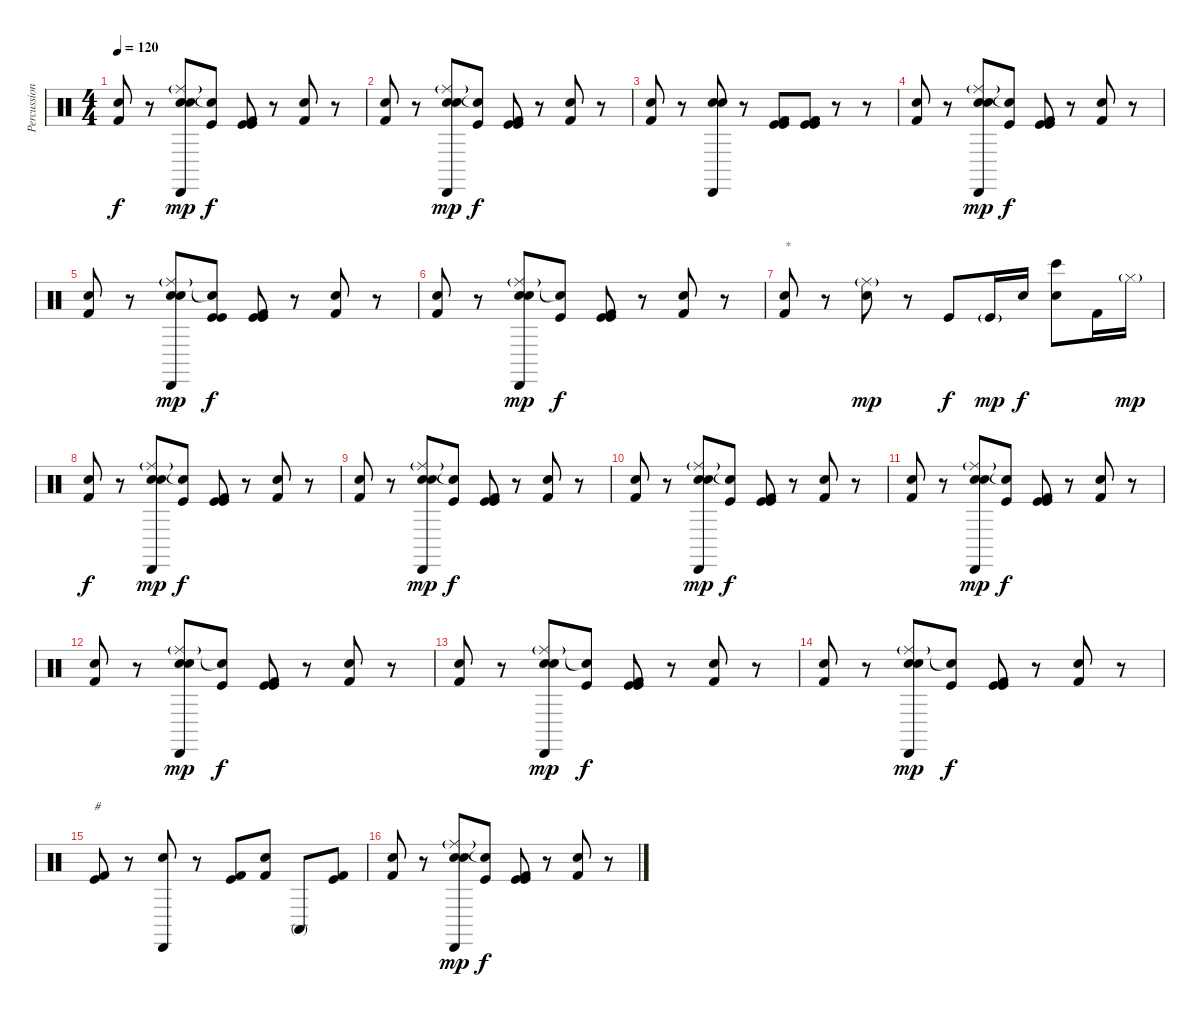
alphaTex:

\track ("Percussion" "Percussion") {instrument percussion}
\staff {score}
\articulation defaults
\ts (4 4)
\tempo 120
\clef neutral
\ks c
("Kick (hit) 2" "Snare (hit) 2").8{dy f} r.8 ("Ride (middle)"{g} "Snare (hit) 2" "Cabasa (hit)" "Snare (hit) 2").8{dy mp} ("Snare (hit)"{t} "Kick (hit)").8{dy f} ("Kick (hit)" "Kick (hit)" "Kick (hit) 2").8 r.8 ("Kick (hit) 2" "Snare (hit) 2").8 r.8 |
("Kick (hit) 2" "Snare (hit) 2").8 r.8 ("Ride (middle)"{g} "Snare (hit) 2" "Cabasa (hit)" "Snare (hit) 2").8{dy mp} ("Snare (hit)"{t} "Kick (hit)").8{dy f} ("Kick (hit)" "Kick (hit)" "Kick (hit) 2").8 r.8 ("Kick (hit) 2" "Snare (hit) 2").8 r.8 |
("Kick (hit) 2" "Snare (hit) 2").8 r.8 ("Snare (hit) 2" "Cabasa (hit)" "Snare (hit) 2").8 r.8 ("Kick (hit)" "Kick (hit)" "Kick (hit) 2").8 ("Kick (hit)" "Kick (hit)" "Kick (hit) 2").8 r.8 r.8 |
("Kick (hit) 2" "Snare (hit) 2").8 r.8 ("Ride (middle)"{g} "Snare (hit) 2" "Cabasa (hit)" "Snare (hit) 2").8{dy mp} ("Snare (hit)"{t} "Kick (hit)").8{dy f} ("Kick (hit)" "Kick (hit)" "Kick (hit) 2").8 r.8 ("Kick (hit) 2" "Snare (hit) 2").8 r.8 |
("Kick (hit) 2" "Snare (hit) 2").8 r.8 ("Ride (middle)"{g} "Snare (hit) 2" "Cabasa (hit)" "Snare (hit) 2").8{dy mp} ("Snare (hit)"{t} "Kick (hit)" "Kick (hit)").8{dy f} ("Kick (hit)" "Kick (hit)" "Kick (hit) 2").8 r.8 ("Kick (hit) 2" "Snare (hit) 2").8 r.8 |
("Kick (hit) 2" "Snare (hit) 2").8 r.8 ("Ride (middle)"{g} "Snare (hit) 2" "Cabasa (hit)" "Snare (hit) 2").8{dy mp} ("Snare (hit)"{t} "Kick (hit)").8{dy f} ("Kick (hit)" "Kick (hit)" "Kick (hit) 2").8 r.8 ("Kick (hit) 2" "Snare (hit) 2").8 r.8 |
("Kick (hit) 2" "Snare (hit) 2").8{txt "*"} r.8 ("Ride (middle)"{g} "Snare (hit) 2").8{dy mp} r.8 "Kick (hit)".8{dy f} "Kick (hit)"{g}.16{dy mp} "Electric Snare (hit)".16{dy f} ("Bongo High (hit)" "Snare (hit) 2").8 "Kick (hit) 2".16 "Hi-Hat (closed)"{g}.16{dy mp} |
("Kick (hit) 2" "Snare (hit) 2").8{dy f} r.8 ("Ride (middle)"{g} "Snare (hit) 2" "Cabasa (hit)" "Snare (hit) 2").8{dy mp} ("Snare (hit)"{t} "Kick (hit)").8{dy f} ("Kick (hit)" "Kick (hit)" "Kick (hit) 2").8 r.8 ("Kick (hit) 2" "Snare (hit) 2").8 r.8 |
("Kick (hit) 2" "Snare (hit) 2").8 r.8 ("Ride (middle)"{g} "Snare (hit) 2" "Cabasa (hit)" "Snare (hit) 2").8{dy mp} ("Snare (hit)"{t} "Kick (hit)").8{dy f} ("Kick (hit)" "Kick (hit)" "Kick (hit) 2").8 r.8 ("Kick (hit) 2" "Snare (hit) 2").8 r.8 |
("Kick (hit) 2" "Snare (hit) 2").8 r.8 ("Ride (middle)"{g} "Snare (hit) 2" "Cabasa (hit)" "Snare (hit) 2").8{dy mp} ("Snare (hit)"{t} "Kick (hit)").8{dy f} ("Kick (hit)" "Kick (hit)" "Kick (hit) 2").8 r.8 ("Kick (hit) 2" "Snare (hit) 2").8 r.8 |
("Kick (hit) 2" "Snare (hit) 2").8 r.8 ("Ride (middle)"{g} "Snare (hit) 2" "Cabasa (hit)" "Snare (hit) 2").8{dy mp} ("Snare (hit)"{t} "Kick (hit)").8{dy f} ("Kick (hit)" "Kick (hit)" "Kick (hit) 2").8 r.8 ("Kick (hit) 2" "Snare (hit) 2").8 r.8 |
("Kick (hit) 2" "Snare (hit) 2").8 r.8 ("Ride (middle)"{g} "Snare (hit) 2" "Cabasa (hit)" "Snare (hit) 2").8{dy mp} ("Snare (hit)"{t} "Kick (hit)").8{dy f} ("Kick (hit)" "Kick (hit)" "Kick (hit) 2").8 r.8 ("Kick (hit) 2" "Snare (hit) 2").8 r.8 |
("Kick (hit) 2" "Snare (hit) 2").8 r.8 ("Ride (middle)"{g} "Snare (hit) 2" "Cabasa (hit)" "Snare (hit) 2").8{dy mp} ("Snare (hit)"{t} "Kick (hit)").8{dy f} ("Kick (hit)" "Kick (hit)" "Kick (hit) 2").8 r.8 ("Kick (hit) 2" "Snare (hit) 2").8 r.8 |
("Kick (hit) 2" "Snare (hit) 2").8 r.8 ("Ride (middle)"{g} "Snare (hit) 2" "Cabasa (hit)" "Snare (hit) 2").8{dy mp} ("Snare (hit)"{t} "Kick (hit)").8{dy f} ("Kick (hit)" "Kick (hit)" "Kick (hit) 2").8 r.8 ("Kick (hit) 2" "Snare (hit) 2").8 r.8 |
("Kick (hit) 2" "Kick (hit)").8{txt "#"} r.8 ("Cabasa (hit)" "Snare (hit) 2").8 r.8 ("Kick (hit)" "Kick (hit) 2").8 ("Snare (hit) 2" "Kick (hit) 2").8 "Conga high (mute)".8 ("Kick (hit)" "Kick (hit) 2").8 |
("Kick (hit) 2" "Snare (hit) 2").8 r.8 ("Ride (middle)"{g} "Snare (hit) 2" "Cabasa (hit)" "Snare (hit) 2").8{dy mp} ("Snare (hit)"{t} "Kick (hit)").8{dy f} ("Kick (hit)" "Kick (hit)" "Kick (hit) 2").8 r.8 ("Kick (hit) 2" "Snare (hit) 2").8 r.8
